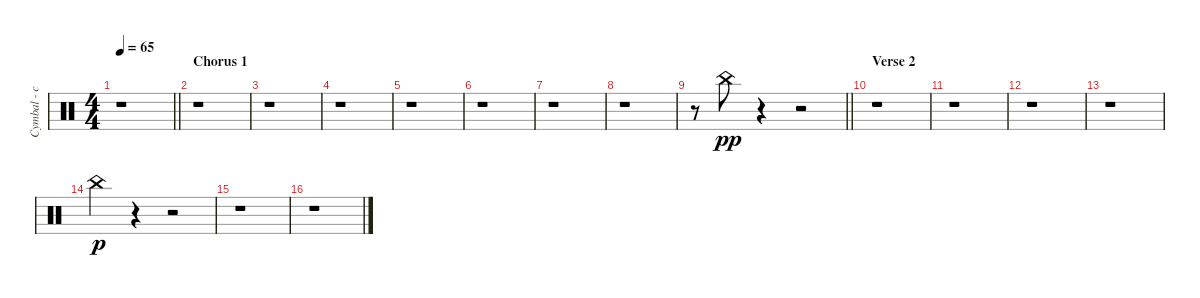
\track ("Cymbal - china" "Cymbal - c") {instrument percussion}
\staff {score}
\articulation defaults
\ts (4 4)
\tempo 65
\clef neutral
\barLineRight lightlight
\ks c
r.1{dy pp} |
\section ("" "Chorus 1")
r.1 |
r.1 |
r.1 |
r.1 |
r.1 |
r.1 |
r.1 |
\barLineRight lightlight
r.8 "China (hit)".8 r.4 r.2 |
\section ("" "Verse 2")
r.1 |
r.1 |
r.1 |
r.1 |
"China (hit)".4{dy p} r.4 r.2 |
r.1 |
r.1
